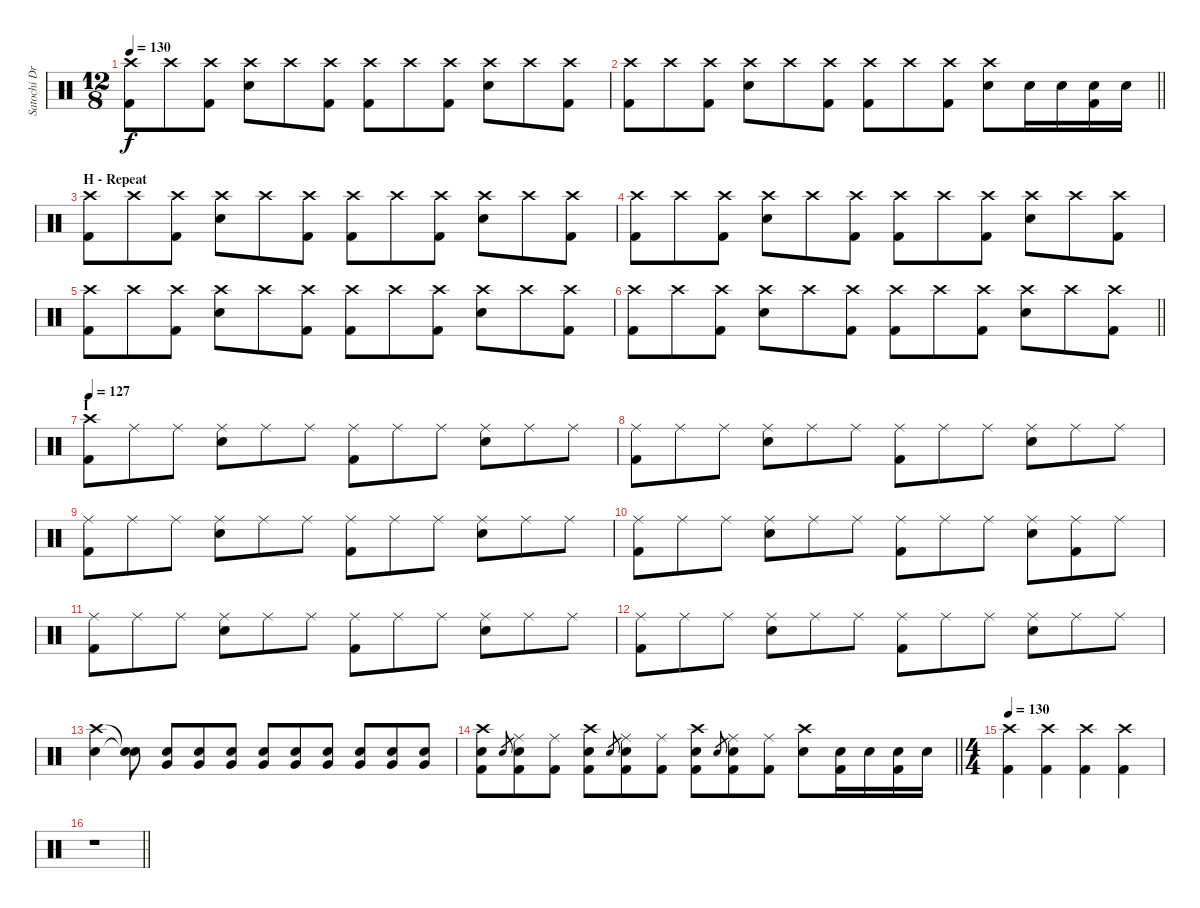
\track ("Satochi Drums" "Satochi Dr") {instrument percussion}
\staff {score}
\articulation defaults
\ts (12 8)
\tempo 130
\clef neutral
\ks c
("Crash high (hit)" "Kick (hit) 2").8{dy f} "Crash high (hit)".8 ("Crash high (hit)" "Kick (hit) 2").8 ("Crash high (hit)" "Snare (hit) 2").8 "Crash high (hit)".8 ("Crash high (hit)" "Kick (hit) 2").8 ("Crash high (hit)" "Kick (hit) 2").8 "Crash high (hit)".8 ("Crash high (hit)" "Kick (hit) 2").8 ("Crash high (hit)" "Snare (hit) 2").8 "Crash high (hit)".8 ("Crash high (hit)" "Kick (hit) 2").8 |
\barLineRight lightlight
("Crash high (hit)" "Kick (hit) 2").8 "Crash high (hit)".8 ("Crash high (hit)" "Kick (hit) 2").8 ("Crash high (hit)" "Snare (hit) 2").8 "Crash high (hit)".8 ("Crash high (hit)" "Kick (hit) 2").8 ("Crash high (hit)" "Kick (hit) 2").8 "Crash high (hit)".8 ("Crash high (hit)" "Kick (hit) 2").8 ("Crash high (hit)" "Snare (hit) 2").8 "Snare (hit) 2".16 "Snare (hit) 2".16 ("Snare (hit) 2" "Kick (hit) 2").16 "Snare (hit) 2".16 |
\section ("" "H - Repeat")
("Crash high (hit)" "Kick (hit) 2").8 "Crash high (hit)".8 ("Crash high (hit)" "Kick (hit) 2").8 ("Crash high (hit)" "Snare (hit) 2").8 "Crash high (hit)".8 ("Crash high (hit)" "Kick (hit) 2").8 ("Crash high (hit)" "Kick (hit) 2").8 "Crash high (hit)".8 ("Crash high (hit)" "Kick (hit) 2").8 ("Crash high (hit)" "Snare (hit) 2").8 "Crash high (hit)".8 ("Crash high (hit)" "Kick (hit) 2").8 |
("Crash high (hit)" "Kick (hit) 2").8 "Crash high (hit)".8 ("Crash high (hit)" "Kick (hit) 2").8 ("Crash high (hit)" "Snare (hit) 2").8 "Crash high (hit)".8 ("Crash high (hit)" "Kick (hit) 2").8 ("Crash high (hit)" "Kick (hit) 2").8 "Crash high (hit)".8 ("Crash high (hit)" "Kick (hit) 2").8 ("Crash high (hit)" "Snare (hit) 2").8 "Crash high (hit)".8 ("Crash high (hit)" "Kick (hit) 2").8 |
("Crash high (hit)" "Kick (hit) 2").8 "Crash high (hit)".8 ("Crash high (hit)" "Kick (hit) 2").8 ("Crash high (hit)" "Snare (hit) 2").8 "Crash high (hit)".8 ("Crash high (hit)" "Kick (hit) 2").8 ("Crash high (hit)" "Kick (hit) 2").8 "Crash high (hit)".8 ("Crash high (hit)" "Kick (hit) 2").8 ("Crash high (hit)" "Snare (hit) 2").8 "Crash high (hit)".8 ("Crash high (hit)" "Kick (hit) 2").8 |
\barLineRight lightlight
("Crash high (hit)" "Kick (hit) 2").8 "Crash high (hit)".8 ("Crash high (hit)" "Kick (hit) 2").8 ("Crash high (hit)" "Snare (hit) 2").8 "Crash high (hit)".8 ("Crash high (hit)" "Kick (hit) 2").8 ("Crash high (hit)" "Kick (hit) 2").8 "Crash high (hit)".8 ("Crash high (hit)" "Kick (hit) 2").8 ("Crash high (hit)" "Snare (hit) 2").8 "Crash high (hit)".8 ("Crash high (hit)" "Kick (hit) 2").8 |
\section ("" "I")
\tempo 127
("Crash high (hit)" "Kick (hit) 2").8 "Ride (middle)".8 "Ride (middle)".8 ("Ride (middle)" "Snare (hit) 2").8 "Ride (middle)".8 "Ride (middle)".8 ("Ride (middle)" "Kick (hit) 2").8 "Ride (middle)".8 "Ride (middle)".8 ("Ride (middle)" "Snare (hit) 2").8 "Ride (middle)".8 "Ride (middle)".8 |
("Ride (middle)" "Kick (hit) 2").8 "Ride (middle)".8 "Ride (middle)".8 ("Ride (middle)" "Snare (hit) 2").8 "Ride (middle)".8 "Ride (middle)".8 ("Ride (middle)" "Kick (hit) 2").8 "Ride (middle)".8 "Ride (middle)".8 ("Ride (middle)" "Snare (hit) 2").8 "Ride (middle)".8 "Ride (middle)".8 |
("Ride (middle)" "Kick (hit) 2").8 "Ride (middle)".8 "Ride (middle)".8 ("Ride (middle)" "Snare (hit) 2").8 "Ride (middle)".8 "Ride (middle)".8 ("Ride (middle)" "Kick (hit) 2").8 "Ride (middle)".8 "Ride (middle)".8 ("Ride (middle)" "Snare (hit) 2").8 "Ride (middle)".8 "Ride (middle)".8 |
("Ride (middle)" "Kick (hit) 2").8 "Ride (middle)".8 "Ride (middle)".8 ("Ride (middle)" "Snare (hit) 2").8 "Ride (middle)".8 "Ride (middle)".8 ("Ride (middle)" "Kick (hit) 2").8 "Ride (middle)".8 "Ride (middle)".8 ("Ride (middle)" "Snare (hit) 2").8 ("Ride (middle)" "Kick (hit) 2").8 "Ride (middle)".8 |
("Ride (middle)" "Kick (hit) 2").8 "Ride (middle)".8 "Ride (middle)".8 ("Ride (middle)" "Snare (hit) 2").8 "Ride (middle)".8 "Ride (middle)".8 ("Ride (middle)" "Kick (hit) 2").8 "Ride (middle)".8 "Ride (middle)".8 ("Ride (middle)" "Snare (hit) 2").8 "Ride (middle)".8 "Ride (middle)".8 |
("Ride (middle)" "Kick (hit) 2").8 "Ride (middle)".8 "Ride (middle)".8 ("Ride (middle)" "Snare (hit) 2").8 "Ride (middle)".8 "Ride (middle)".8 ("Ride (middle)" "Kick (hit) 2").8 "Ride (middle)".8 "Ride (middle)".8 ("Ride (middle)" "Snare (hit) 2").8 "Ride (middle)".8 "Ride (middle)".8 |
("Crash high (hit)" "Snare (hit) 2").4 ("Snare (hit)"{t} "Snare (hit)"{t}).8{volume 9} ("Snare (hit) 2" "Very Low Tom (hit)").8{volume 14} ("Snare (hit) 2" "Very Low Tom (hit)").8 ("Snare (hit) 2" "Very Low Tom (hit)").8 ("Snare (hit) 2" "Very Low Tom (hit)").8 ("Snare (hit) 2" "Very Low Tom (hit)").8 ("Snare (hit) 2" "Very Low Tom (hit)").8 ("Snare (hit) 2" "Very Low Tom (hit)").8 ("Snare (hit) 2" "Very Low Tom (hit)").8 ("Snare (hit) 2" "Very Low Tom (hit)").8 |
\barLineRight lightlight
("Crash high (hit)" "Snare (hit) 2" "Kick (hit) 2").8 "Snare (hit) 2".8{gr} ("Ride (middle)" "Snare (hit) 2" "Kick (hit) 2").8 ("Ride (middle)" "Kick (hit) 2").8 ("Crash high (hit)" "Snare (hit) 2" "Kick (hit) 2").8 "Snare (hit) 2".8{gr} ("Ride (middle)" "Snare (hit) 2" "Kick (hit) 2").8 ("Ride (middle)" "Kick (hit) 2").8 ("Crash high (hit)" "Snare (hit) 2" "Kick (hit) 2").8 "Snare (hit) 2".8{gr} ("Ride (middle)" "Snare (hit) 2" "Kick (hit) 2").8 ("Ride (middle)" "Kick (hit) 2").8 ("Crash high (hit)" "Snare (hit) 2").8 ("Snare (hit) 2" "Kick (hit) 2").16 "Snare (hit) 2".16 ("Snare (hit) 2" "Kick (hit) 2").16 "Snare (hit) 2".16 |
\ts (4 4)
\section ("" "")
\tempo 130
("Crash high (hit)" "Kick (hit) 2").4 ("Crash high (hit)" "Kick (hit) 2").4 ("Crash high (hit)" "Kick (hit) 2").4 ("Crash high (hit)" "Kick (hit) 2").4 |
\barLineRight lightlight
r.1
